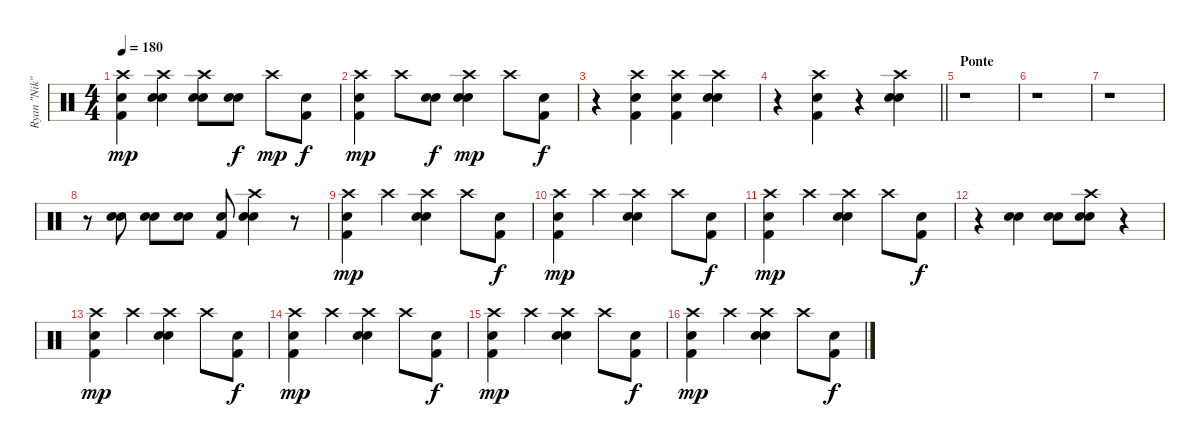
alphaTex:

\track ("Ryan \"Nik\"" "Ryan \"Nik\"") {instrument percussion}
\staff {score}
\articulation defaults
\ts (4 4)
\tempo 180
\clef neutral
\ks c
("Crash high (hit)" "Electric Snare (hit)" "Kick (hit) 2").4{dy mp} ("Crash high (hit)" "Electric Snare (hit)" "Electric Snare (hit)").4 ("Crash high (hit)" "Electric Snare (hit)" "Electric Snare (hit)").8 ("Electric Snare (hit)" "Electric Snare (hit)").8{dy f} "Crash high (hit)".8{dy mp} ("Kick (hit) 2" "Electric Snare (hit)").8{dy f} |
("Crash high (hit)" "Electric Snare (hit)" "Kick (hit) 2").4{dy mp} "Crash high (hit)".8 ("Electric Snare (hit)" "Electric Snare (hit)").8{dy f} ("Crash high (hit)" "Electric Snare (hit)" "Electric Snare (hit)").4{dy mp} "Crash high (hit)".8 ("Kick (hit) 2" "Electric Snare (hit)").8{dy f} |
r.4 ("Crash high (hit)" "Electric Snare (hit)" "Kick (hit) 2").4 ("Crash high (hit)" "Electric Snare (hit)" "Kick (hit) 2").4 ("Crash high (hit)" "Electric Snare (hit)" "Electric Snare (hit)").4 |
\barLineRight lightlight
r.4 ("Crash high (hit)" "Electric Snare (hit)" "Kick (hit) 2").4 r.4 ("Crash high (hit)" "Electric Snare (hit)" "Electric Snare (hit)").4 |
\section ("" "Ponte")
r.1 |
r.1 |
r.1 |
r.8 ("Electric Snare (hit)" "Electric Snare (hit)").8 ("Electric Snare (hit)" "Electric Snare (hit)").8 ("Electric Snare (hit)" "Electric Snare (hit)").8 ("Electric Snare (hit)" "Kick (hit) 2").8 ("Crash high (hit)" "Electric Snare (hit)" "Electric Snare (hit)").4 r.8 |
("Crash high (hit)" "Electric Snare (hit)" "Kick (hit) 2").4{dy mp} "Crash high (hit)".4 ("Crash high (hit)" "Electric Snare (hit)" "Electric Snare (hit)").4 "Crash high (hit)".8 ("Kick (hit) 2" "Electric Snare (hit)").8{dy f} |
("Crash high (hit)" "Electric Snare (hit)" "Kick (hit) 2").4{dy mp} "Crash high (hit)".4 ("Crash high (hit)" "Electric Snare (hit)" "Electric Snare (hit)").4 "Crash high (hit)".8 ("Kick (hit) 2" "Electric Snare (hit)").8{dy f} |
("Crash high (hit)" "Electric Snare (hit)" "Kick (hit) 2").4{dy mp} "Crash high (hit)".4 ("Crash high (hit)" "Electric Snare (hit)" "Electric Snare (hit)").4 "Crash high (hit)".8 ("Kick (hit) 2" "Electric Snare (hit)").8{dy f} |
r.4 ("Electric Snare (hit)" "Electric Snare (hit)").4 ("Electric Snare (hit)" "Electric Snare (hit)").8 ("Crash high (hit)" "Electric Snare (hit)" "Electric Snare (hit)").8 r.4 |
("Crash high (hit)" "Electric Snare (hit)" "Kick (hit) 2").4{dy mp} "Crash high (hit)".4 ("Crash high (hit)" "Electric Snare (hit)" "Electric Snare (hit)").4 "Crash high (hit)".8 ("Kick (hit) 2" "Electric Snare (hit)").8{dy f} |
("Crash high (hit)" "Electric Snare (hit)" "Kick (hit) 2").4{dy mp} "Crash high (hit)".4 ("Crash high (hit)" "Electric Snare (hit)" "Electric Snare (hit)").4 "Crash high (hit)".8 ("Kick (hit) 2" "Electric Snare (hit)").8{dy f} |
("Crash high (hit)" "Electric Snare (hit)" "Kick (hit) 2").4{dy mp} "Crash high (hit)".4 ("Crash high (hit)" "Electric Snare (hit)" "Electric Snare (hit)").4 "Crash high (hit)".8 ("Kick (hit) 2" "Electric Snare (hit)").8{dy f} |
("Crash high (hit)" "Electric Snare (hit)" "Kick (hit) 2").4{dy mp} "Crash high (hit)".4 ("Crash high (hit)" "Electric Snare (hit)" "Electric Snare (hit)").4 "Crash high (hit)".8 ("Kick (hit) 2" "Electric Snare (hit)").8{dy f}
